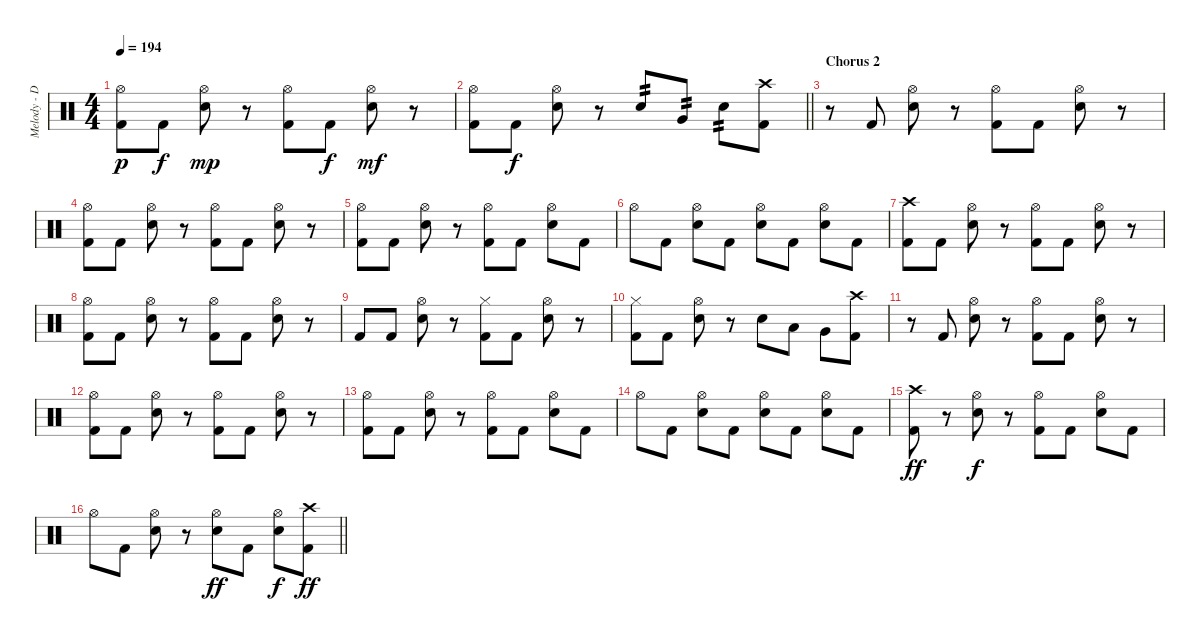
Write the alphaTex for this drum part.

\track ("Melody - Drums" "Melody - D") {instrument percussion}
\staff {score}
\articulation defaults
\ts (4 4)
\tempo 194
\clef neutral
\ks c
("Hi-Hat (open)" "Kick (hit) 2").8{dy p} "Kick (hit) 2".8{dy f} ("Hi-Hat (open)" "Electric Snare (hit)").8{dy mp} r.8 ("Hi-Hat (open)" "Kick (hit) 2").8 "Kick (hit) 2".8{dy f} ("Hi-Hat (open)" "Electric Snare (hit)").8{dy mf} r.8 |
\barLineRight lightlight
("Hi-Hat (open)" "Kick (hit) 2").8 "Kick (hit) 2".8{dy f} ("Hi-Hat (open)" "Electric Snare (hit)").8 r.8 "Electric Snare (hit)".8{tp 2} "Very Low Tom (hit)".8{tp 2} "Electric Snare (hit)".8{tp 2} ("Crash high (hit)" "Kick (hit) 2").8 |
\section ("" "Chorus 2")
r.8 "Kick (hit) 2".8 ("Hi-Hat (open)" "Electric Snare (hit)").8 r.8 ("Hi-Hat (open)" "Kick (hit) 2").8 "Kick (hit) 2".8 ("Hi-Hat (open)" "Electric Snare (hit)").8 r.8 |
("Hi-Hat (open)" "Kick (hit) 2").8 "Kick (hit) 2".8 ("Hi-Hat (open)" "Electric Snare (hit)").8 r.8 ("Hi-Hat (open)" "Kick (hit) 2").8 "Kick (hit) 2".8 ("Hi-Hat (open)" "Electric Snare (hit)").8 r.8 |
("Hi-Hat (open)" "Kick (hit) 2").8 "Kick (hit) 2".8 ("Hi-Hat (open)" "Electric Snare (hit)").8 r.8 ("Hi-Hat (open)" "Kick (hit) 2").8 "Kick (hit) 2".8 ("Hi-Hat (open)" "Electric Snare (hit)").8 "Kick (hit) 2".8 |
"Hi-Hat (open)".8 "Kick (hit) 2".8 ("Hi-Hat (open)" "Electric Snare (hit)").8 "Kick (hit) 2".8 ("Hi-Hat (open)" "Electric Snare (hit)").8 "Kick (hit) 2".8 ("Hi-Hat (open)" "Electric Snare (hit)").8 "Kick (hit) 2".8 |
("Crash high (hit)" "Kick (hit) 2").8 "Kick (hit) 2".8 ("Hi-Hat (open)" "Electric Snare (hit)").8 r.8 ("Hi-Hat (open)" "Kick (hit) 2").8 "Kick (hit) 2".8 ("Hi-Hat (open)" "Electric Snare (hit)").8 r.8 |
("Hi-Hat (open)" "Kick (hit) 2").8 "Kick (hit) 2".8 ("Hi-Hat (open)" "Electric Snare (hit)").8 r.8 ("Hi-Hat (open)" "Kick (hit) 2").8 "Kick (hit) 2".8 ("Hi-Hat (open)" "Electric Snare (hit)").8 r.8 |
"Kick (hit) 2".8 "Kick (hit) 2".8 ("Hi-Hat (open)" "Electric Snare (hit)").8 r.8 ("Hi-Hat (closed)" "Kick (hit) 2").8 "Kick (hit) 2".8 ("Hi-Hat (open)" "Electric Snare (hit)").8 r.8 |
("Hi-Hat (closed)" "Kick (hit) 2").8 "Kick (hit) 2".8 ("Hi-Hat (open)" "Electric Snare (hit)").8 r.8 "Electric Snare (hit)".8 "Low Tom (hit)".8 "Very Low Tom (hit)".8 ("Crash high (hit)" "Kick (hit) 2").8 |
r.8 "Kick (hit) 2".8 ("Hi-Hat (open)" "Electric Snare (hit)").8 r.8 ("Hi-Hat (open)" "Kick (hit) 2").8 "Kick (hit) 2".8 ("Hi-Hat (open)" "Electric Snare (hit)").8 r.8 |
("Hi-Hat (open)" "Kick (hit) 2").8 "Kick (hit) 2".8 ("Hi-Hat (open)" "Electric Snare (hit)").8 r.8 ("Hi-Hat (open)" "Kick (hit) 2").8 "Kick (hit) 2".8 ("Hi-Hat (open)" "Electric Snare (hit)").8 r.8 |
("Hi-Hat (open)" "Kick (hit) 2").8 "Kick (hit) 2".8 ("Hi-Hat (open)" "Electric Snare (hit)").8 r.8 ("Hi-Hat (open)" "Kick (hit) 2").8 "Kick (hit) 2".8 ("Hi-Hat (open)" "Electric Snare (hit)").8 "Kick (hit) 2".8 |
"Hi-Hat (open)".8 "Kick (hit) 2".8 ("Hi-Hat (open)" "Electric Snare (hit)").8 "Kick (hit) 2".8 ("Hi-Hat (open)" "Electric Snare (hit)").8 "Kick (hit) 2".8 ("Hi-Hat (open)" "Electric Snare (hit)").8 "Kick (hit) 2".8 |
("Crash high (hit)" "Kick (hit) 2").8{dy ff} r.8 ("Hi-Hat (open)" "Electric Snare (hit)").8{dy f} r.8 ("Hi-Hat (open)" "Kick (hit) 2").8 "Kick (hit) 2".8 ("Hi-Hat (open)" "Electric Snare (hit)").8 "Kick (hit) 2".8 |
\barLineRight lightlight "Hi-Hat (open)".8 "Kick (hit) 2".8
("Hi-Hat (open)" "Electric Snare (hit)").8 r.8 ("Hi-Hat (open)" "Electric Snare (hit)").8{dy ff} "Kick (hit) 2".8 ("Hi-Hat (open)" "Electric Snare (hit)").8{dy f} ("Crash high (hit)" "Kick (hit) 2").8{dy ff}
